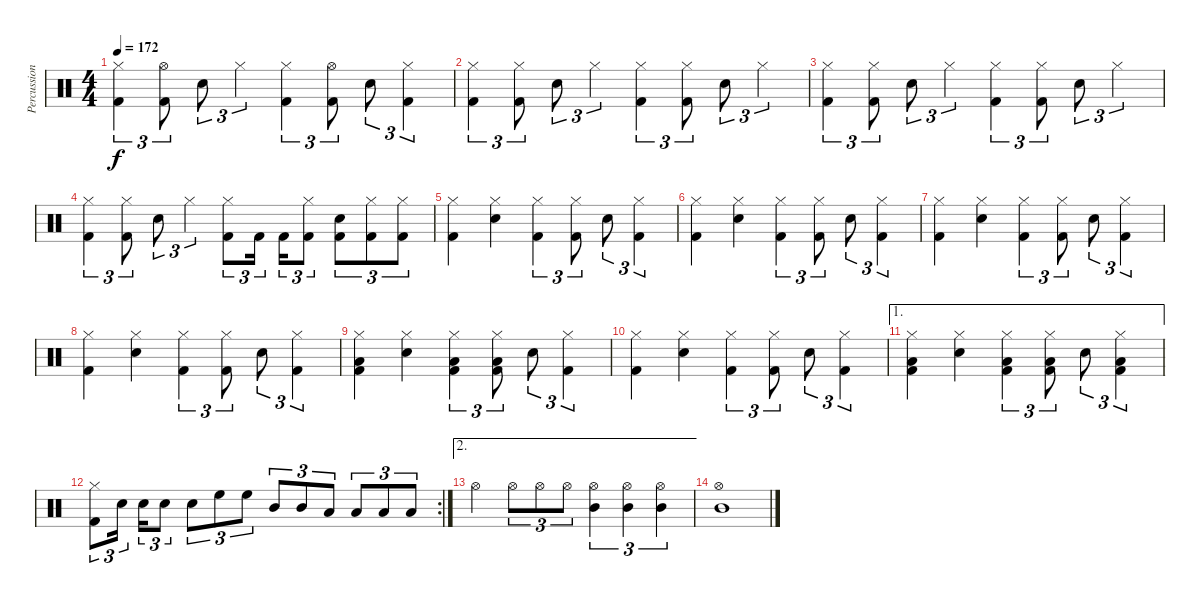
\track ("Percussions" "Percussion") {instrument percussion}
\staff {score}
\articulation defaults
\ts (4 4)
\tempo 172
\clef neutral
\ks c
("Hi-Hat (closed)" "Kick (hit) 2").4{tu (3 2) dy f} ("Hi-Hat (open)" "Kick (hit) 2").8{tu (3 2)} "Snare (hit) 2".8{tu (3 2)} "Hi-Hat (closed)".4{tu (3 2)} ("Hi-Hat (closed)" "Kick (hit) 2").4{tu (3 2)} ("Hi-Hat (open)" "Kick (hit) 2").8{tu (3 2)} "Snare (hit) 2".8{tu (3 2)} ("Hi-Hat (closed)" "Kick (hit) 2").4{tu (3 2)} |
("Hi-Hat (closed)" "Kick (hit) 2").4{tu (3 2)} ("Hi-Hat (closed)" "Kick (hit) 2").8{tu (3 2)} "Snare (hit) 2".8{tu (3 2)} "Hi-Hat (closed)".4{tu (3 2)} ("Hi-Hat (closed)" "Kick (hit) 2").4{tu (3 2)} ("Hi-Hat (closed)" "Kick (hit) 2").8{tu (3 2)} "Snare (hit) 2".8{tu (3 2)} "Hi-Hat (closed)".4{tu (3 2)} |
("Hi-Hat (closed)" "Kick (hit) 2").4{tu (3 2)} ("Hi-Hat (closed)" "Kick (hit) 2").8{tu (3 2)} "Snare (hit) 2".8{tu (3 2)} "Hi-Hat (closed)".4{tu (3 2)} ("Hi-Hat (closed)" "Kick (hit) 2").4{tu (3 2)} ("Hi-Hat (closed)" "Kick (hit) 2").8{tu (3 2)} "Snare (hit) 2".8{tu (3 2)} "Hi-Hat (closed)".4{tu (3 2)} |
("Hi-Hat (closed)" "Kick (hit) 2").4{tu (3 2)} ("Hi-Hat (closed)" "Kick (hit) 2").8{tu (3 2)} "Snare (hit) 2".8{tu (3 2)} "Hi-Hat (closed)".4{tu (3 2)} ("Hi-Hat (closed)" "Kick (hit) 2").8{tu (3 2)} "Kick (hit) 2".16{tu (3 2)} "Kick (hit) 2".16{tu (3 2)} ("Hi-Hat (closed)" "Kick (hit) 2").8{tu (3 2)} ("Snare (hit) 2" "Kick (hit) 2").8{tu (3 2)} ("Hi-Hat (closed)" "Kick (hit) 2").8{tu (3 2)} ("Hi-Hat (closed)" "Kick (hit) 2").8{tu (3 2)} |
("Hi-Hat (closed)" "Kick (hit) 2").4 ("Hi-Hat (closed)" "Snare (hit) 2").4 ("Hi-Hat (closed)" "Kick (hit) 2").4{tu (3 2)} ("Hi-Hat (closed)" "Kick (hit) 2").8{tu (3 2)} "Snare (hit) 2".8{tu (3 2)} ("Hi-Hat (closed)" "Kick (hit) 2").4{tu (3 2)} |
("Hi-Hat (closed)" "Kick (hit) 2").4 ("Hi-Hat (closed)" "Snare (hit) 2").4 ("Hi-Hat (closed)" "Kick (hit) 2").4{tu (3 2)} ("Hi-Hat (closed)" "Kick (hit) 2").8{tu (3 2)} "Snare (hit) 2".8{tu (3 2)} ("Hi-Hat (closed)" "Kick (hit) 2").4{tu (3 2)} |
("Hi-Hat (closed)" "Kick (hit) 2").4 ("Hi-Hat (closed)" "Snare (hit) 2").4 ("Hi-Hat (closed)" "Kick (hit) 2").4{tu (3 2)} ("Hi-Hat (closed)" "Kick (hit) 2").8{tu (3 2)} "Snare (hit) 2".8{tu (3 2)} ("Hi-Hat (closed)" "Kick (hit) 2").4{tu (3 2)} |
("Hi-Hat (closed)" "Kick (hit) 2").4 ("Hi-Hat (closed)" "Snare (hit) 2").4 ("Hi-Hat (closed)" "Kick (hit) 2").4{tu (3 2)} ("Hi-Hat (closed)" "Kick (hit) 2").8{tu (3 2)} "Snare (hit) 2".8{tu (3 2)} ("Hi-Hat (closed)" "Kick (hit) 2").4{tu (3 2)} |
("Hi-Hat (closed)" "Low Floor Tom (hit)" "Kick (hit) 2").4 ("Hi-Hat (closed)" "Snare (hit) 2").4 ("Hi-Hat (closed)" "Low Floor Tom (hit)" "Kick (hit) 2").4{tu (3 2)} ("Hi-Hat (closed)" "Low Floor Tom (hit)" "Kick (hit) 2").8{tu (3 2)} "Snare (hit) 2".8{tu (3 2)} ("Hi-Hat (closed)" "Kick (hit) 2").4{tu (3 2)} |
("Hi-Hat (closed)" "Kick (hit) 2").4 ("Hi-Hat (closed)" "Snare (hit) 2").4 ("Hi-Hat (closed)" "Kick (hit) 2").4{tu (3 2)} ("Hi-Hat (closed)" "Kick (hit) 2").8{tu (3 2)} "Snare (hit) 2".8{tu (3 2)} ("Hi-Hat (closed)" "Kick (hit) 2").4{tu (3 2)} |
\ae 1
("Hi-Hat (closed)" "Low Floor Tom (hit)" "Kick (hit) 2").4 ("Hi-Hat (closed)" "Snare (hit) 2").4 ("Hi-Hat (closed)" "Low Floor Tom (hit)" "Kick (hit) 2").4{tu (3 2)} ("Hi-Hat (closed)" "Low Floor Tom (hit)" "Kick (hit) 2").8{tu (3 2)} "Snare (hit) 2".8{tu (3 2)} ("Hi-Hat (closed)" "Low Floor Tom (hit)" "Kick (hit) 2").4{tu (3 2)} |
\rc 2
("Hi-Hat (closed)" "Kick (hit) 2").8{tu (3 2)} "Snare (hit) 2".16{tu (3 2)} "Snare (hit) 2".16{tu (3 2)} "Snare (hit) 2".8{tu (3 2)} "Snare (hit) 2".8{tu (3 2)} "High Floor Tom (hit)".8{tu (3 2)} "High Floor Tom (hit)".8{tu (3 2)} "Mid Tom (hit)".8{tu (3 2)} "Mid Tom (hit)".8{tu (3 2)} "Low Tom (hit)".8{tu (3 2)} "Low Tom (hit)".8{tu (3 2)} "Low Floor Tom (hit)".8{tu (3 2)} "Low Floor Tom (hit)".8{tu (3 2)} |
\ae 2 "Hi-Hat (open)".4 "Hi-Hat (open)".8{tu (3 2)} "Hi-Hat (open)".8{tu (3 2)} "Hi-Hat (open)".8{tu (3 2)}
("Hi-Hat (open)" "Mid Tom (hit)").4{tu (3 2)} ("Hi-Hat (open)" "Mid Tom (hit)").4{tu (3 2)} ("Hi-Hat (open)" "Mid Tom (hit)").4{tu (3 2)} |
("Hi-Hat (open)" "Mid Tom (hit)").1
